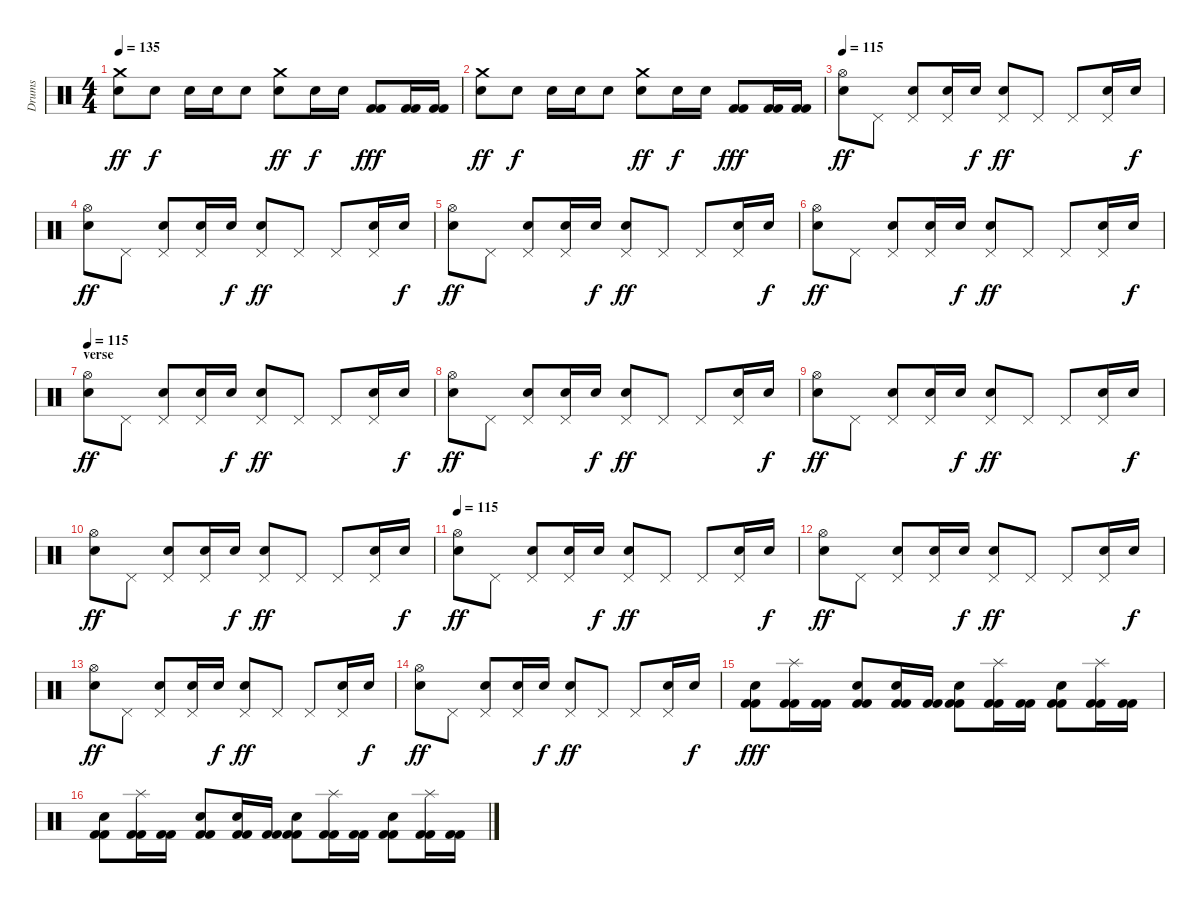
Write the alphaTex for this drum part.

\track ("Drums" "Drums") {instrument percussion}
\staff {score}
\articulation defaults
\ts (4 4)
\tempo 135
\clef neutral
\ks c
("Crash medium (hit)" "Snare (hit) 2").8{dy ff} "Snare (hit) 2".8{dy f} "Snare (hit) 2".16 "Snare (hit) 2".16 "Snare (hit) 2".8 ("Snare (hit) 2" "Crash medium (hit)").8{dy ff} "Snare (hit) 2".16{dy f} "Snare (hit) 2".16 ("Kick (hit) 2" "Kick (hit) 2").8{dy fff} ("Kick (hit) 2" "Kick (hit) 2").16 ("Kick (hit) 2" "Kick (hit) 2").16 |
("Crash medium (hit)" "Snare (hit) 2").8{dy ff} "Snare (hit) 2".8{dy f} "Snare (hit) 2".16 "Snare (hit) 2".16 "Snare (hit) 2".8 ("Snare (hit) 2" "Crash medium (hit)").8{dy ff} "Snare (hit) 2".16{dy f} "Snare (hit) 2".16 ("Kick (hit) 2" "Kick (hit) 2").8{dy fff} ("Kick (hit) 2" "Kick (hit) 2").16 ("Kick (hit) 2" "Kick (hit) 2").16 |
\tempo 115
("Snare (hit) 2" "Hi-Hat (open)").8{dy ff} "Pedal Hi-Hat (hit)".8 ("Pedal Hi-Hat (hit)" "Snare (hit) 2").8 ("Pedal Hi-Hat (hit)" "Snare (hit) 2").16 "Snare (hit) 2".16{dy f} ("Pedal Hi-Hat (hit)" "Snare (hit) 2").8{dy ff} "Pedal Hi-Hat (hit)".8 "Pedal Hi-Hat (hit)".8 ("Pedal Hi-Hat (hit)" "Snare (hit) 2").16 "Snare (hit) 2".16{dy f} |
("Snare (hit) 2" "Hi-Hat (open)").8{dy ff} "Pedal Hi-Hat (hit)".8 ("Pedal Hi-Hat (hit)" "Snare (hit) 2").8 ("Pedal Hi-Hat (hit)" "Snare (hit) 2").16 "Snare (hit) 2".16{dy f} ("Pedal Hi-Hat (hit)" "Snare (hit) 2").8{dy ff} "Pedal Hi-Hat (hit)".8 "Pedal Hi-Hat (hit)".8 ("Pedal Hi-Hat (hit)" "Snare (hit) 2").16 "Snare (hit) 2".16{dy f} |
("Snare (hit) 2" "Hi-Hat (open)").8{dy ff} "Pedal Hi-Hat (hit)".8 ("Pedal Hi-Hat (hit)" "Snare (hit) 2").8 ("Pedal Hi-Hat (hit)" "Snare (hit) 2").16 "Snare (hit) 2".16{dy f} ("Pedal Hi-Hat (hit)" "Snare (hit) 2").8{dy ff} "Pedal Hi-Hat (hit)".8 "Pedal Hi-Hat (hit)".8 ("Pedal Hi-Hat (hit)" "Snare (hit) 2").16 "Snare (hit) 2".16{dy f} |
("Snare (hit) 2" "Hi-Hat (open)").8{dy ff} "Pedal Hi-Hat (hit)".8 ("Pedal Hi-Hat (hit)" "Snare (hit) 2").8 ("Pedal Hi-Hat (hit)" "Snare (hit) 2").16 "Snare (hit) 2".16{dy f} ("Pedal Hi-Hat (hit)" "Snare (hit) 2").8{dy ff} "Pedal Hi-Hat (hit)".8 "Pedal Hi-Hat (hit)".8 ("Pedal Hi-Hat (hit)" "Snare (hit) 2").16 "Snare (hit) 2".16{dy f} |
\section ("" "verse")
\tempo 115
("Snare (hit) 2" "Hi-Hat (open)").8{dy ff} "Pedal Hi-Hat (hit)".8 ("Pedal Hi-Hat (hit)" "Snare (hit) 2").8 ("Pedal Hi-Hat (hit)" "Snare (hit) 2").16 "Snare (hit) 2".16{dy f} ("Pedal Hi-Hat (hit)" "Snare (hit) 2").8{dy ff} "Pedal Hi-Hat (hit)".8 "Pedal Hi-Hat (hit)".8 ("Pedal Hi-Hat (hit)" "Snare (hit) 2").16 "Snare (hit) 2".16{dy f} |
("Snare (hit) 2" "Hi-Hat (open)").8{dy ff} "Pedal Hi-Hat (hit)".8 ("Pedal Hi-Hat (hit)" "Snare (hit) 2").8 ("Pedal Hi-Hat (hit)" "Snare (hit) 2").16 "Snare (hit) 2".16{dy f} ("Pedal Hi-Hat (hit)" "Snare (hit) 2").8{dy ff} "Pedal Hi-Hat (hit)".8 "Pedal Hi-Hat (hit)".8 ("Pedal Hi-Hat (hit)" "Snare (hit) 2").16 "Snare (hit) 2".16{dy f} |
("Snare (hit) 2" "Hi-Hat (open)").8{dy ff} "Pedal Hi-Hat (hit)".8 ("Pedal Hi-Hat (hit)" "Snare (hit) 2").8 ("Pedal Hi-Hat (hit)" "Snare (hit) 2").16 "Snare (hit) 2".16{dy f} ("Pedal Hi-Hat (hit)" "Snare (hit) 2").8{dy ff} "Pedal Hi-Hat (hit)".8 "Pedal Hi-Hat (hit)".8 ("Pedal Hi-Hat (hit)" "Snare (hit) 2").16 "Snare (hit) 2".16{dy f} |
("Snare (hit) 2" "Hi-Hat (open)").8{dy ff} "Pedal Hi-Hat (hit)".8 ("Pedal Hi-Hat (hit)" "Snare (hit) 2").8 ("Pedal Hi-Hat (hit)" "Snare (hit) 2").16 "Snare (hit) 2".16{dy f} ("Pedal Hi-Hat (hit)" "Snare (hit) 2").8{dy ff} "Pedal Hi-Hat (hit)".8 "Pedal Hi-Hat (hit)".8 ("Pedal Hi-Hat (hit)" "Snare (hit) 2").16 "Snare (hit) 2".16{dy f} |
\tempo 115
("Snare (hit) 2" "Hi-Hat (open)").8{dy ff} "Pedal Hi-Hat (hit)".8 ("Pedal Hi-Hat (hit)" "Snare (hit) 2").8 ("Pedal Hi-Hat (hit)" "Snare (hit) 2").16 "Snare (hit) 2".16{dy f} ("Pedal Hi-Hat (hit)" "Snare (hit) 2").8{dy ff} "Pedal Hi-Hat (hit)".8 "Pedal Hi-Hat (hit)".8 ("Pedal Hi-Hat (hit)" "Snare (hit) 2").16 "Snare (hit) 2".16{dy f} |
("Snare (hit) 2" "Hi-Hat (open)").8{dy ff} "Pedal Hi-Hat (hit)".8 ("Pedal Hi-Hat (hit)" "Snare (hit) 2").8 ("Pedal Hi-Hat (hit)" "Snare (hit) 2").16 "Snare (hit) 2".16{dy f} ("Pedal Hi-Hat (hit)" "Snare (hit) 2").8{dy ff} "Pedal Hi-Hat (hit)".8 "Pedal Hi-Hat (hit)".8 ("Pedal Hi-Hat (hit)" "Snare (hit) 2").16 "Snare (hit) 2".16{dy f} |
("Snare (hit) 2" "Hi-Hat (open)").8{dy ff} "Pedal Hi-Hat (hit)".8 ("Pedal Hi-Hat (hit)" "Snare (hit) 2").8 ("Pedal Hi-Hat (hit)" "Snare (hit) 2").16 "Snare (hit) 2".16{dy f} ("Pedal Hi-Hat (hit)" "Snare (hit) 2").8{dy ff} "Pedal Hi-Hat (hit)".8 "Pedal Hi-Hat (hit)".8 ("Pedal Hi-Hat (hit)" "Snare (hit) 2").16 "Snare (hit) 2".16{dy f} |
("Snare (hit) 2" "Hi-Hat (open)").8{dy ff} "Pedal Hi-Hat (hit)".8 ("Pedal Hi-Hat (hit)" "Snare (hit) 2").8 ("Pedal Hi-Hat (hit)" "Snare (hit) 2").16 "Snare (hit) 2".16{dy f} ("Pedal Hi-Hat (hit)" "Snare (hit) 2").8{dy ff} "Pedal Hi-Hat (hit)".8 "Pedal Hi-Hat (hit)".8 ("Pedal Hi-Hat (hit)" "Snare (hit) 2").16 "Snare (hit) 2".16{dy f} |
("Snare (hit) 2" "Kick (hit) 2" "Kick (hit) 2").8{dy fff} ("Splash (hit)" "Kick (hit) 2" "Kick (hit) 2").16 ("Kick (hit) 2" "Kick (hit) 2").16 ("Snare (hit) 2" "Kick (hit) 2" "Kick (hit) 2").8 ("Snare (hit) 2" "Kick (hit) 2" "Kick (hit) 2").16 ("Kick (hit) 2" "Kick (hit) 2").16 ("Snare (hit) 2" "Kick (hit) 2" "Kick (hit) 2").8 ("Splash (hit)" "Kick (hit) 2" "Kick (hit) 2").16 ("Kick (hit) 2" "Kick (hit) 2").16 ("Snare (hit) 2" "Kick (hit) 2" "Kick (hit) 2").8 ("Splash (hit)" "Kick (hit) 2" "Kick (hit) 2").16 ("Kick (hit) 2" "Kick (hit) 2").16 |
("Snare (hit) 2" "Kick (hit) 2" "Kick (hit) 2").8 ("Splash (hit)" "Kick (hit) 2" "Kick (hit) 2").16 ("Kick (hit) 2" "Kick (hit) 2").16 ("Snare (hit) 2" "Kick (hit) 2" "Kick (hit) 2").8 ("Snare (hit) 2" "Kick (hit) 2" "Kick (hit) 2").16 ("Kick (hit) 2" "Kick (hit) 2").16 ("Snare (hit) 2" "Kick (hit) 2" "Kick (hit) 2").8 ("Splash (hit)" "Kick (hit) 2" "Kick (hit) 2").16 ("Kick (hit) 2" "Kick (hit) 2").16 ("Snare (hit) 2" "Kick (hit) 2" "Kick (hit) 2").8 ("Splash (hit)" "Kick (hit) 2" "Kick (hit) 2").16 ("Kick (hit) 2" "Kick (hit) 2").16
